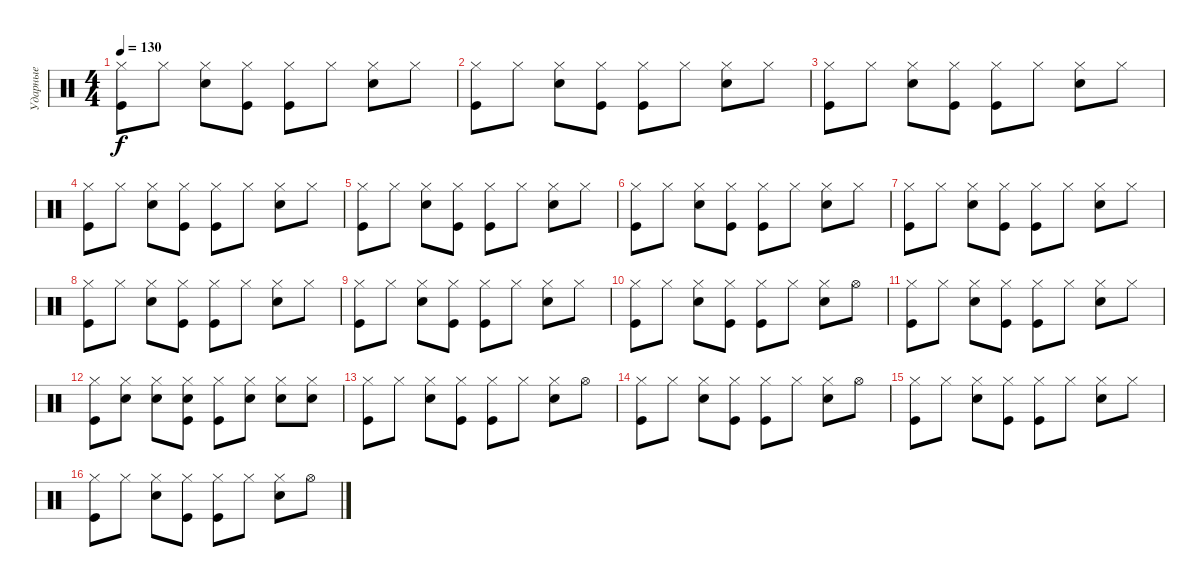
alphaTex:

\track ("Ударные" "Ударные") {instrument percussion}
\staff {score}
\articulation defaults
\ts (4 4)
\tempo 130
\clef neutral
\ks c
("Hi-Hat (closed)" "Kick (hit)").8{dy f} "Hi-Hat (closed)".8 ("Hi-Hat (closed)" "Snare (hit) 2").8 ("Hi-Hat (closed)" "Kick (hit)").8 ("Hi-Hat (closed)" "Kick (hit)").8 "Hi-Hat (closed)".8 ("Hi-Hat (closed)" "Snare (hit) 2").8 "Hi-Hat (closed)".8 |
("Hi-Hat (closed)" "Kick (hit)").8 "Hi-Hat (closed)".8 ("Hi-Hat (closed)" "Snare (hit) 2").8 ("Hi-Hat (closed)" "Kick (hit)").8 ("Hi-Hat (closed)" "Kick (hit)").8 "Hi-Hat (closed)".8 ("Hi-Hat (closed)" "Snare (hit) 2").8 "Hi-Hat (closed)".8 |
("Hi-Hat (closed)" "Kick (hit)").8 "Hi-Hat (closed)".8 ("Hi-Hat (closed)" "Snare (hit) 2").8 ("Hi-Hat (closed)" "Kick (hit)").8 ("Hi-Hat (closed)" "Kick (hit)").8 "Hi-Hat (closed)".8 ("Hi-Hat (closed)" "Snare (hit) 2").8 "Hi-Hat (closed)".8 |
("Hi-Hat (closed)" "Kick (hit)").8 "Hi-Hat (closed)".8 ("Hi-Hat (closed)" "Snare (hit) 2").8 ("Hi-Hat (closed)" "Kick (hit)").8 ("Hi-Hat (closed)" "Kick (hit)").8 "Hi-Hat (closed)".8 ("Hi-Hat (closed)" "Snare (hit) 2").8 "Hi-Hat (closed)".8 |
("Hi-Hat (closed)" "Kick (hit)").8 "Hi-Hat (closed)".8 ("Hi-Hat (closed)" "Snare (hit) 2").8 ("Hi-Hat (closed)" "Kick (hit)").8 ("Hi-Hat (closed)" "Kick (hit)").8 "Hi-Hat (closed)".8 ("Hi-Hat (closed)" "Snare (hit) 2").8 "Hi-Hat (closed)".8 |
("Hi-Hat (closed)" "Kick (hit)").8 "Hi-Hat (closed)".8 ("Hi-Hat (closed)" "Snare (hit) 2").8 ("Hi-Hat (closed)" "Kick (hit)").8 ("Hi-Hat (closed)" "Kick (hit)").8 "Hi-Hat (closed)".8 ("Hi-Hat (closed)" "Snare (hit) 2").8 "Hi-Hat (closed)".8 |
("Hi-Hat (closed)" "Kick (hit)").8 "Hi-Hat (closed)".8 ("Hi-Hat (closed)" "Snare (hit) 2").8 ("Hi-Hat (closed)" "Kick (hit)").8 ("Hi-Hat (closed)" "Kick (hit)").8 "Hi-Hat (closed)".8 ("Hi-Hat (closed)" "Snare (hit) 2").8 "Hi-Hat (closed)".8 |
("Hi-Hat (closed)" "Kick (hit)").8 "Hi-Hat (closed)".8 ("Hi-Hat (closed)" "Snare (hit) 2").8 ("Hi-Hat (closed)" "Kick (hit)").8 ("Hi-Hat (closed)" "Kick (hit)").8 "Hi-Hat (closed)".8 ("Hi-Hat (closed)" "Snare (hit) 2").8 "Hi-Hat (closed)".8 |
("Hi-Hat (closed)" "Kick (hit)").8 "Hi-Hat (closed)".8 ("Hi-Hat (closed)" "Snare (hit) 2").8 ("Hi-Hat (closed)" "Kick (hit)").8 ("Hi-Hat (closed)" "Kick (hit)").8 "Hi-Hat (closed)".8 ("Hi-Hat (closed)" "Snare (hit) 2").8 "Hi-Hat (closed)".8 |
("Hi-Hat (closed)" "Kick (hit)").8 "Hi-Hat (closed)".8 ("Hi-Hat (closed)" "Snare (hit) 2").8 ("Hi-Hat (closed)" "Kick (hit)").8 ("Hi-Hat (closed)" "Kick (hit)").8 "Hi-Hat (closed)".8 ("Hi-Hat (closed)" "Snare (hit) 2").8 "Hi-Hat (open)".8 |
("Hi-Hat (closed)" "Kick (hit)").8 "Hi-Hat (closed)".8 ("Hi-Hat (closed)" "Snare (hit) 2").8 ("Hi-Hat (closed)" "Kick (hit)").8 ("Hi-Hat (closed)" "Kick (hit)").8 "Hi-Hat (closed)".8 ("Hi-Hat (closed)" "Snare (hit) 2").8 "Hi-Hat (closed)".8 |
("Hi-Hat (closed)" "Kick (hit)").8 ("Hi-Hat (closed)" "Snare (hit) 2").8 ("Hi-Hat (closed)" "Snare (hit) 2").8 ("Hi-Hat (closed)" "Kick (hit)" "Snare (hit) 2").8 ("Hi-Hat (closed)" "Kick (hit)").8 ("Hi-Hat (closed)" "Snare (hit) 2").8 ("Hi-Hat (closed)" "Snare (hit) 2").8 ("Hi-Hat (closed)" "Snare (hit) 2").8 |
("Hi-Hat (closed)" "Kick (hit)").8 "Hi-Hat (closed)".8 ("Hi-Hat (closed)" "Snare (hit) 2").8 ("Hi-Hat (closed)" "Kick (hit)").8 ("Hi-Hat (closed)" "Kick (hit)").8 "Hi-Hat (closed)".8 ("Hi-Hat (closed)" "Snare (hit) 2").8 "Hi-Hat (open)".8 |
("Hi-Hat (closed)" "Kick (hit)").8 "Hi-Hat (closed)".8 ("Hi-Hat (closed)" "Snare (hit) 2").8 ("Hi-Hat (closed)" "Kick (hit)").8 ("Hi-Hat (closed)" "Kick (hit)").8 "Hi-Hat (closed)".8 ("Hi-Hat (closed)" "Snare (hit) 2").8 "Hi-Hat (open)".8 |
("Hi-Hat (closed)" "Kick (hit)").8 "Hi-Hat (closed)".8 ("Hi-Hat (closed)" "Snare (hit) 2").8 ("Hi-Hat (closed)" "Kick (hit)").8 ("Hi-Hat (closed)" "Kick (hit)").8 "Hi-Hat (closed)".8 ("Hi-Hat (closed)" "Snare (hit) 2").8 "Hi-Hat (closed)".8 |
("Hi-Hat (closed)" "Kick (hit)").8 "Hi-Hat (closed)".8 ("Hi-Hat (closed)" "Snare (hit) 2").8 ("Hi-Hat (closed)" "Kick (hit)").8 ("Hi-Hat (closed)" "Kick (hit)").8 "Hi-Hat (closed)".8 ("Hi-Hat (closed)" "Snare (hit) 2").8 "Hi-Hat (open)".8
